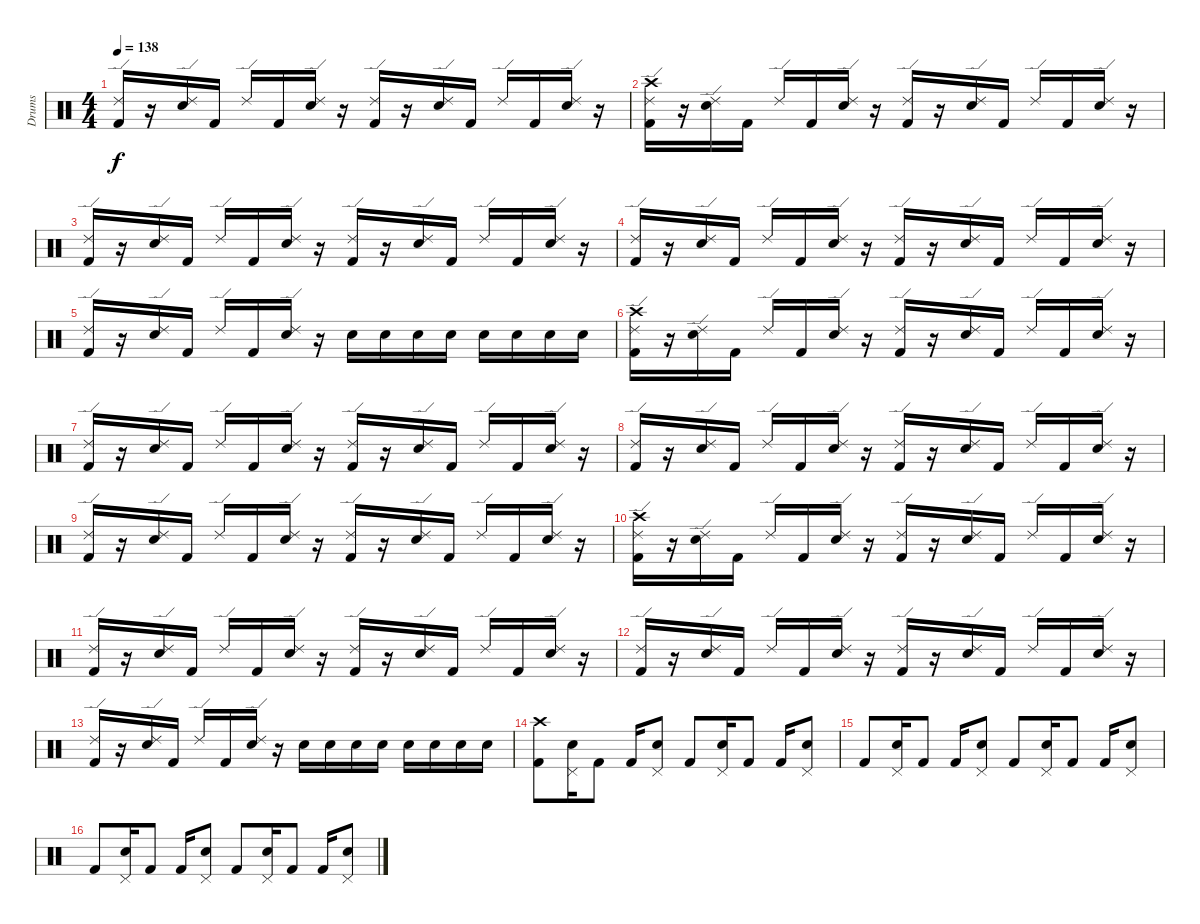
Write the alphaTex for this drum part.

\track ("Drums" "Drums") {instrument percussion}
\staff {score}
\articulation defaults
\ts (4 4)
\tempo 138
\clef neutral
\ks c
("Ride (edge) 2" "Kick (hit) 2").16{dy f} r.16 ("Ride (edge) 2" "Snare (hit) 2").16 "Kick (hit) 2".16 "Ride (edge) 2".16 "Kick (hit) 2".16 ("Ride (edge) 2" "Snare (hit) 2").16 r.16 ("Ride (edge) 2" "Kick (hit) 2").16 r.16 ("Ride (edge) 2" "Snare (hit) 2").16 "Kick (hit) 2".16 "Ride (edge) 2".16 "Kick (hit) 2".16 ("Ride (edge) 2" "Snare (hit) 2").16 r.16 |
("Crash high (hit)" "Ride (edge) 2" "Kick (hit) 2").16 r.16 ("Ride (edge) 2" "Snare (hit) 2").16 "Kick (hit) 2".16 "Ride (edge) 2".16 "Kick (hit) 2".16 ("Ride (edge) 2" "Snare (hit) 2").16 r.16 ("Ride (edge) 2" "Kick (hit) 2").16 r.16 ("Ride (edge) 2" "Snare (hit) 2").16 "Kick (hit) 2".16 "Ride (edge) 2".16 "Kick (hit) 2".16 ("Ride (edge) 2" "Snare (hit) 2").16 r.16 |
("Ride (edge) 2" "Kick (hit) 2").16 r.16 ("Ride (edge) 2" "Snare (hit) 2").16 "Kick (hit) 2".16 "Ride (edge) 2".16 "Kick (hit) 2".16 ("Ride (edge) 2" "Snare (hit) 2").16 r.16 ("Ride (edge) 2" "Kick (hit) 2").16 r.16 ("Ride (edge) 2" "Snare (hit) 2").16 "Kick (hit) 2".16 "Ride (edge) 2".16 "Kick (hit) 2".16 ("Ride (edge) 2" "Snare (hit) 2").16 r.16 |
("Ride (edge) 2" "Kick (hit) 2").16 r.16 ("Ride (edge) 2" "Snare (hit) 2").16 "Kick (hit) 2".16 "Ride (edge) 2".16 "Kick (hit) 2".16 ("Ride (edge) 2" "Snare (hit) 2").16 r.16 ("Ride (edge) 2" "Kick (hit) 2").16 r.16 ("Ride (edge) 2" "Snare (hit) 2").16 "Kick (hit) 2".16 "Ride (edge) 2".16 "Kick (hit) 2".16 ("Ride (edge) 2" "Snare (hit) 2").16 r.16 |
("Ride (edge) 2" "Kick (hit) 2").16 r.16 ("Ride (edge) 2" "Snare (hit) 2").16 "Kick (hit) 2".16 "Ride (edge) 2".16 "Kick (hit) 2".16 ("Ride (edge) 2" "Snare (hit) 2").16 r.16 "Snare (hit) 2".16 "Snare (hit) 2".16 "Snare (hit) 2".16 "Snare (hit) 2".16 "Snare (hit) 2".16 "Snare (hit) 2".16 "Snare (hit) 2".16 "Snare (hit) 2".16 |
("Crash high (hit)" "Ride (edge) 2" "Kick (hit) 2").16 r.16 ("Ride (edge) 2" "Snare (hit) 2").16 "Kick (hit) 2".16 "Ride (edge) 2".16 "Kick (hit) 2".16 ("Ride (edge) 2" "Snare (hit) 2").16 r.16 ("Ride (edge) 2" "Kick (hit) 2").16 r.16 ("Ride (edge) 2" "Snare (hit) 2").16 "Kick (hit) 2".16 "Ride (edge) 2".16 "Kick (hit) 2".16 ("Ride (edge) 2" "Snare (hit) 2").16 r.16 |
("Ride (edge) 2" "Kick (hit) 2").16 r.16 ("Ride (edge) 2" "Snare (hit) 2").16 "Kick (hit) 2".16 "Ride (edge) 2".16 "Kick (hit) 2".16 ("Ride (edge) 2" "Snare (hit) 2").16 r.16 ("Ride (edge) 2" "Kick (hit) 2").16 r.16 ("Ride (edge) 2" "Snare (hit) 2").16 "Kick (hit) 2".16 "Ride (edge) 2".16 "Kick (hit) 2".16 ("Ride (edge) 2" "Snare (hit) 2").16 r.16 |
("Ride (edge) 2" "Kick (hit) 2").16 r.16 ("Ride (edge) 2" "Snare (hit) 2").16 "Kick (hit) 2".16 "Ride (edge) 2".16 "Kick (hit) 2".16 ("Ride (edge) 2" "Snare (hit) 2").16 r.16 ("Ride (edge) 2" "Kick (hit) 2").16 r.16 ("Ride (edge) 2" "Snare (hit) 2").16 "Kick (hit) 2".16 "Ride (edge) 2".16 "Kick (hit) 2".16 ("Ride (edge) 2" "Snare (hit) 2").16 r.16 |
("Ride (edge) 2" "Kick (hit) 2").16 r.16 ("Ride (edge) 2" "Snare (hit) 2").16 "Kick (hit) 2".16 "Ride (edge) 2".16 "Kick (hit) 2".16 ("Ride (edge) 2" "Snare (hit) 2").16 r.16 ("Ride (edge) 2" "Kick (hit) 2").16 r.16 ("Ride (edge) 2" "Snare (hit) 2").16 "Kick (hit) 2".16 "Ride (edge) 2".16 "Kick (hit) 2".16 ("Ride (edge) 2" "Snare (hit) 2").16 r.16 |
("Crash high (hit)" "Ride (edge) 2" "Kick (hit) 2").16 r.16 ("Ride (edge) 2" "Snare (hit) 2").16 "Kick (hit) 2".16 "Ride (edge) 2".16 "Kick (hit) 2".16 ("Ride (edge) 2" "Snare (hit) 2").16 r.16 ("Ride (edge) 2" "Kick (hit) 2").16 r.16 ("Ride (edge) 2" "Snare (hit) 2").16 "Kick (hit) 2".16 "Ride (edge) 2".16 "Kick (hit) 2".16 ("Ride (edge) 2" "Snare (hit) 2").16 r.16 |
("Ride (edge) 2" "Kick (hit) 2").16 r.16 ("Ride (edge) 2" "Snare (hit) 2").16 "Kick (hit) 2".16 "Ride (edge) 2".16 "Kick (hit) 2".16 ("Ride (edge) 2" "Snare (hit) 2").16 r.16 ("Ride (edge) 2" "Kick (hit) 2").16 r.16 ("Ride (edge) 2" "Snare (hit) 2").16 "Kick (hit) 2".16 "Ride (edge) 2".16 "Kick (hit) 2".16 ("Ride (edge) 2" "Snare (hit) 2").16 r.16 |
("Ride (edge) 2" "Kick (hit) 2").16 r.16 ("Ride (edge) 2" "Snare (hit) 2").16 "Kick (hit) 2".16 "Ride (edge) 2".16 "Kick (hit) 2".16 ("Ride (edge) 2" "Snare (hit) 2").16 r.16 ("Ride (edge) 2" "Kick (hit) 2").16 r.16 ("Ride (edge) 2" "Snare (hit) 2").16 "Kick (hit) 2".16 "Ride (edge) 2".16 "Kick (hit) 2".16 ("Ride (edge) 2" "Snare (hit) 2").16 r.16 |
("Ride (edge) 2" "Kick (hit) 2").16 r.16 ("Ride (edge) 2" "Snare (hit) 2").16 "Kick (hit) 2".16 "Ride (edge) 2".16 "Kick (hit) 2".16 ("Ride (edge) 2" "Snare (hit) 2").16 r.16 "Snare (hit) 2".16 "Snare (hit) 2".16 "Snare (hit) 2".16 "Snare (hit) 2".16 "Snare (hit) 2".16 "Snare (hit) 2".16 "Snare (hit) 2".16 "Snare (hit) 2".16 |
("Crash high (hit)" "Kick (hit) 2").8 ("Pedal Hi-Hat (hit)" "Snare (hit) 2").16 "Kick (hit) 2".8 "Kick (hit) 2".16 ("Pedal Hi-Hat (hit)" "Snare (hit) 2").8 "Kick (hit) 2".8 ("Pedal Hi-Hat (hit)" "Snare (hit) 2").16 "Kick (hit) 2".8 "Kick (hit) 2".16 ("Pedal Hi-Hat (hit)" "Snare (hit) 2").8 |
"Kick (hit) 2".8 ("Pedal Hi-Hat (hit)" "Snare (hit) 2").16 "Kick (hit) 2".8 "Kick (hit) 2".16 ("Pedal Hi-Hat (hit)" "Snare (hit) 2").8 "Kick (hit) 2".8 ("Pedal Hi-Hat (hit)" "Snare (hit) 2").16 "Kick (hit) 2".8 "Kick (hit) 2".16 ("Pedal Hi-Hat (hit)" "Snare (hit) 2").8 |
"Kick (hit) 2".8 ("Pedal Hi-Hat (hit)" "Snare (hit) 2").16 "Kick (hit) 2".8 "Kick (hit) 2".16 ("Pedal Hi-Hat (hit)" "Snare (hit) 2").8 "Kick (hit) 2".8 ("Pedal Hi-Hat (hit)" "Snare (hit) 2").16 "Kick (hit) 2".8 "Kick (hit) 2".16 ("Pedal Hi-Hat (hit)" "Snare (hit) 2").8
